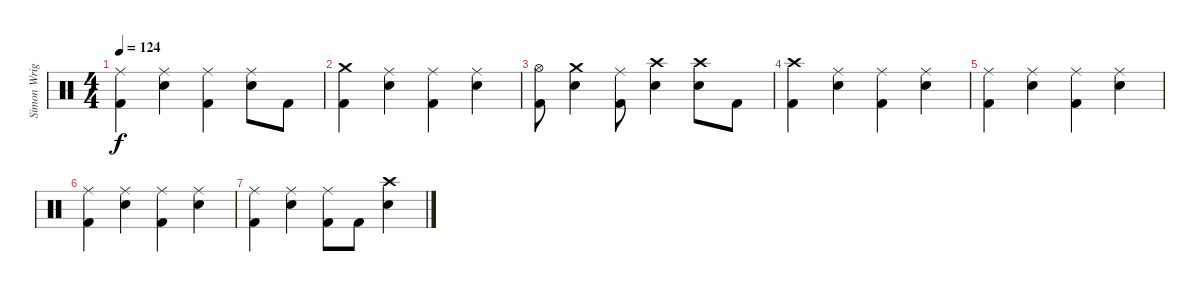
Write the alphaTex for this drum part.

\track ("Simon Wright" "Simon Wrig") {instrument percussion}
\staff {score}
\articulation defaults
\ts (4 4)
\tempo 124
\clef neutral
\ks c
("Ride (middle)" "Kick (hit) 2").4{dy f volume 8} ("Ride (middle)" "Electric Snare (hit)").4 ("Ride (middle)" "Kick (hit) 2").4 ("Ride (middle)" "Electric Snare (hit)").8 "Kick (hit) 2".8 |
("Crash medium (hit)" "Kick (hit) 2").4{volume 7} ("Ride (middle)" "Electric Snare (hit)").4 ("Ride (middle)" "Kick (hit) 2").4 ("Ride (middle)" "Electric Snare (hit)").4 |
("Hi-Hat (open)" "Kick (hit) 2").8{volume 6} ("Crash medium (hit)" "Electric Snare (hit)").4 ("Ride (middle)" "Kick (hit) 2").8 ("Crash high (hit)" "Electric Snare (hit)").4 ("Crash high (hit)" "Electric Snare (hit)").8 "Kick (hit) 2".8 |
("Crash high (hit)" "Kick (hit) 2").4{volume 4} ("Ride (middle)" "Electric Snare (hit)").4 ("Ride (middle)" "Kick (hit) 2").4 ("Ride (middle)" "Electric Snare (hit)").4 |
("Ride (middle)" "Kick (hit) 2").4{volume 3} ("Ride (middle)" "Electric Snare (hit)").4 ("Ride (middle)" "Kick (hit) 2").4 ("Ride (middle)" "Electric Snare (hit)").4 |
("Ride (middle)" "Kick (hit) 2").4{volume 1} ("Ride (middle)" "Electric Snare (hit)").4 ("Ride (middle)" "Kick (hit) 2").4 ("Ride (middle)" "Electric Snare (hit)").4 |
("Ride (middle)" "Kick (hit) 2").4{volume 0} ("Ride (middle)" "Electric Snare (hit)").4 ("Ride (middle)" "Kick (hit) 2").8 "Kick (hit) 2".8 ("Crash high (hit)" "Electric Snare (hit)").4
